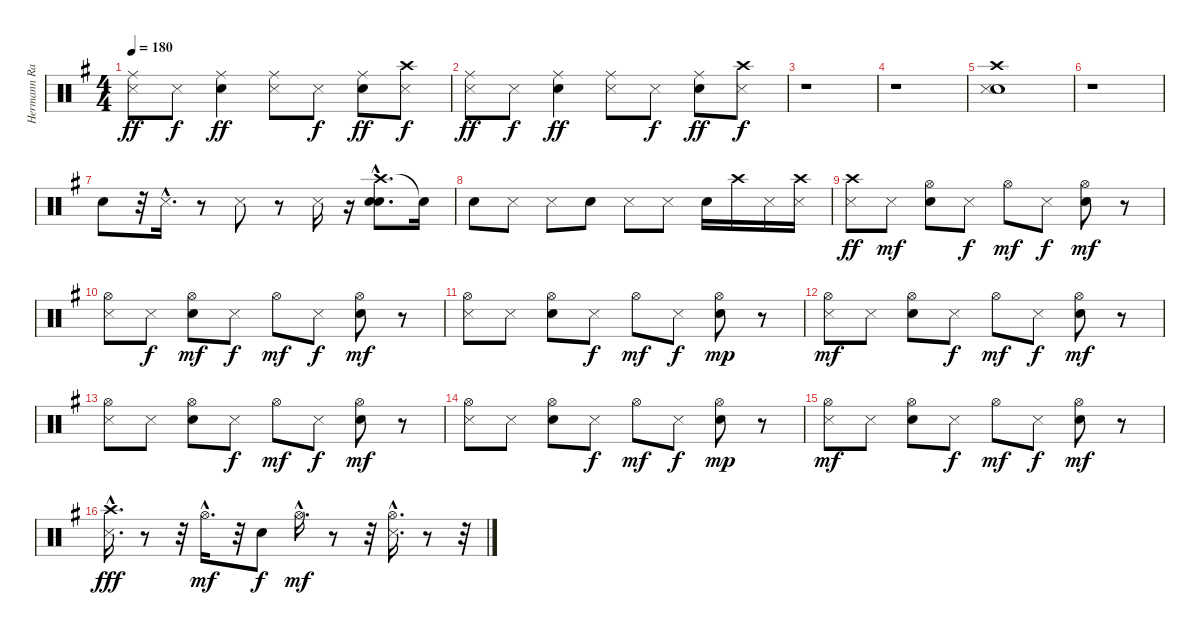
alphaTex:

\track ("Hermann Rarebel" "Hermann Ra") {instrument percussion}
\staff {score}
\articulation defaults
\ts (4 4)
\tempo 180
\clef neutral
\ks eminor
("Metronome (hit)" "Ride (middle)").8{dy ff} "Metronome (hit)".8{dy f} ("Snare (hit) 2" "Ride (middle)").4{dy ff} ("Metronome (hit)" "Ride (middle)").8 "Metronome (hit)".8{dy f} ("Snare (hit) 2" "Ride (middle)").8{dy ff} ("Metronome (hit)" "Crash high (hit)").8{dy f} |
("Metronome (hit)" "Ride (middle)").8{dy ff} "Metronome (hit)".8{dy f} ("Snare (hit) 2" "Ride (middle)").4{dy ff} ("Metronome (hit)" "Ride (middle)").8 "Metronome (hit)".8{dy f} ("Snare (hit) 2" "Ride (middle)").8{dy ff} ("Metronome (hit)" "Crash high (hit)").8{dy f} |
r.1 |
r.1 |
("Snare (hit) 2" "Metronome (hit)" "Crash high (hit)").1 |
r.1 |
"Snare (hit) 2".8 r.32 "Metronome (hit)"{hac}.16{d} r.8 "Metronome (hit)".8 r.8 "Metronome (hit)".16 r.16 ("Crash high (hit)"{hac} "Electric Snare (hit)"{hac} "Snare (hit) 2"{hac}).8{d} "Snare (hit)"{t}.16 |
"Snare (hit) 2".8 "Metronome (hit)".8 "Metronome (hit)".8 "Snare (hit) 2".8 "Metronome (hit)".8 "Metronome (hit)".8 "Snare (hit) 2".16 "Crash high (hit)".16 "Metronome (hit)".16 ("Crash high (hit)" "Metronome (hit)").16 |
("Crash high (hit)" "Metronome (hit)").8{dy ff} "Metronome (hit)".8{dy mf} ("Hi-Hat (open)" "Snare (hit) 2").8 "Metronome (hit)".8{dy f} "Hi-Hat (open)".8{dy mf} "Metronome (hit)".8{dy f} ("Hi-Hat (open)" "Snare (hit) 2").8{dy mf} r.8 |
("Hi-Hat (open)" "Metronome (hit)").8 "Metronome (hit)".8{dy f} ("Hi-Hat (open)" "Snare (hit) 2").8{dy mf} "Metronome (hit)".8{dy f} "Hi-Hat (open)".8{dy mf} "Metronome (hit)".8{dy f} ("Hi-Hat (open)" "Snare (hit) 2").8{dy mf} r.8 |
("Hi-Hat (open)" "Metronome (hit)").8 "Metronome (hit)".8 ("Hi-Hat (open)" "Snare (hit) 2").8 "Metronome (hit)".8{dy f} "Hi-Hat (open)".8{dy mf} "Metronome (hit)".8{dy f} ("Hi-Hat (open)" "Snare (hit) 2").8{dy mp} r.8 |
("Hi-Hat (open)" "Metronome (hit)").8{dy mf} "Metronome (hit)".8 ("Hi-Hat (open)" "Snare (hit) 2").8 "Metronome (hit)".8{dy f} "Hi-Hat (open)".8{dy mf} "Metronome (hit)".8{dy f} ("Hi-Hat (open)" "Snare (hit) 2").8{dy mf} r.8 |
("Hi-Hat (open)" "Metronome (hit)").8 "Metronome (hit)".8 ("Hi-Hat (open)" "Snare (hit) 2").8 "Metronome (hit)".8{dy f} "Hi-Hat (open)".8{dy mf} "Metronome (hit)".8{dy f} ("Hi-Hat (open)" "Snare (hit) 2").8{dy mf} r.8 |
("Hi-Hat (open)" "Metronome (hit)").8 "Metronome (hit)".8 ("Hi-Hat (open)" "Snare (hit) 2").8 "Metronome (hit)".8{dy f} "Hi-Hat (open)".8{dy mf} "Metronome (hit)".8{dy f} ("Hi-Hat (open)" "Snare (hit) 2").8{dy mp} r.8 |
("Hi-Hat (open)" "Metronome (hit)").8{dy mf} "Metronome (hit)".8 ("Hi-Hat (open)" "Snare (hit) 2").8 "Metronome (hit)".8{dy f} "Hi-Hat (open)".8{dy mf} "Metronome (hit)".8{dy f} ("Hi-Hat (open)" "Snare (hit) 2").8{dy mf} r.8 |
("Metronome (hit)"{hac} "Crash high (hit)"{hac}).16{d dy fff} r.8 r.32 "Hi-Hat (open)"{hac}.16{d dy mf} r.32 "Snare (hit) 2".8{dy f} "Hi-Hat (open)"{hac}.16{d dy mf} r.8 r.32 ("Hi-Hat (open)"{hac} "Metronome (hit)"{hac}).16{d} r.8 r.32
